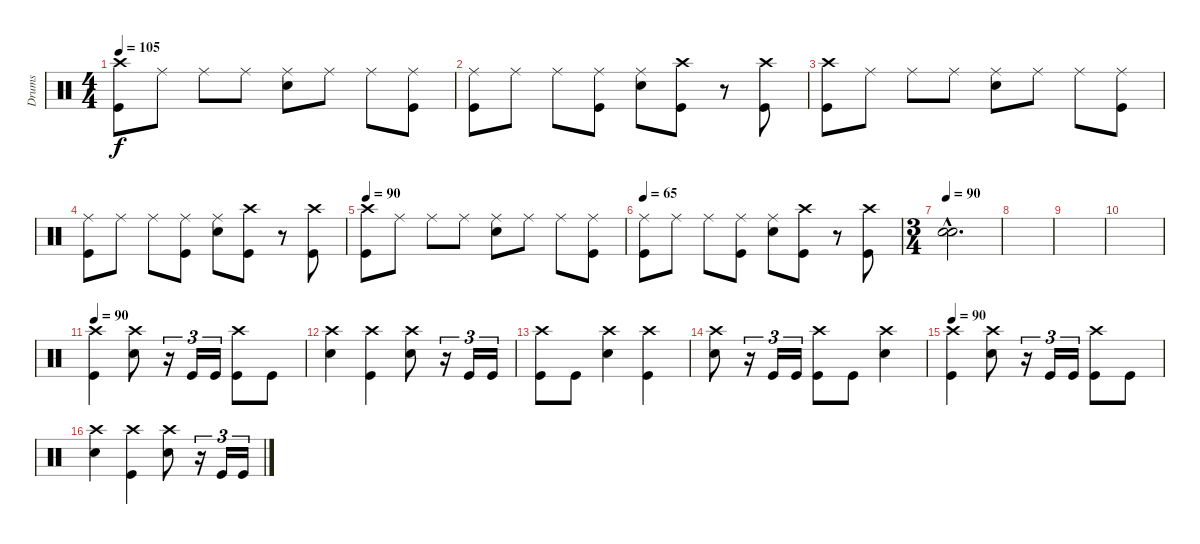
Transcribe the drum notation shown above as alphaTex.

\track ("Drums" "Drums") {instrument percussion}
\staff {score}
\articulation defaults
\ts (4 4)
\tempo 105
\clef neutral
\ks c
("Kick (hit)" "Crash high (hit)").8{dy f} "Ride (middle)".8 "Ride (middle)".8 "Ride (middle)".8 ("Snare (hit) 2" "Ride (middle)").8 "Ride (middle)".8 "Ride (middle)".8 ("Kick (hit)" "Ride (middle)").8 |
("Kick (hit)" "Ride (middle)").8 "Ride (middle)".8 "Ride (middle)".8 ("Kick (hit)" "Ride (middle)").8 ("Snare (hit) 2" "Ride (middle)").8 ("Kick (hit)" "Crash high (hit)").8 r.8 ("Kick (hit)" "Crash high (hit)").8 |
("Kick (hit)" "Crash high (hit)").8 "Ride (middle)".8 "Ride (middle)".8 "Ride (middle)".8 ("Snare (hit) 2" "Ride (middle)").8 "Ride (middle)".8 "Ride (middle)".8 ("Kick (hit)" "Ride (middle)").8 |
("Kick (hit)" "Ride (middle)").8 "Ride (middle)".8 "Ride (middle)".8 ("Kick (hit)" "Ride (middle)").8 ("Snare (hit) 2" "Ride (middle)").8 ("Kick (hit)" "Crash high (hit)").8 r.8 ("Kick (hit)" "Crash high (hit)").8 |
\tempo 90
("Kick (hit)" "Crash high (hit)").8 "Ride (middle)".8 "Ride (middle)".8 "Ride (middle)".8 ("Snare (hit) 2" "Ride (middle)").8 "Ride (middle)".8 "Ride (middle)".8 ("Kick (hit)" "Ride (middle)").8 |
\tempo 65
("Kick (hit)" "Ride (middle)").8 "Ride (middle)".8 "Ride (middle)".8 ("Kick (hit)" "Ride (middle)").8 ("Snare (hit) 2" "Ride (middle)").8 ("Kick (hit)" "Crash high (hit)").8 r.8 ("Kick (hit)" "Crash high (hit)").8 |
\ts (3 4)
\tempo 90
("Snare (hit) 2"{hac} "Snare (hit) 2"{hac}).2{d} |
|
|
|
\tempo 90
("Kick (hit)" "Crash high (hit)").4 ("Snare (hit) 2" "Crash high (hit)").8 r.16{tu (3 2)} "Kick (hit)".16{tu (3 2)} "Kick (hit)".16{tu (3 2)} ("Kick (hit)" "Crash high (hit)").8 "Kick (hit)".8 |
("Snare (hit) 2" "Crash high (hit)").4 ("Kick (hit)" "Crash high (hit)").4 ("Snare (hit) 2" "Crash high (hit)").8 r.16{tu (3 2)} "Kick (hit)".16{tu (3 2)} "Kick (hit)".16{tu (3 2)} |
("Kick (hit)" "Crash high (hit)").8 "Kick (hit)".8 ("Snare (hit) 2" "Crash high (hit)").4 ("Kick (hit)" "Crash high (hit)").4 |
("Snare (hit) 2" "Crash high (hit)").8 r.16{tu (3 2)} "Kick (hit)".16{tu (3 2)} "Kick (hit)".16{tu (3 2)} ("Kick (hit)" "Crash high (hit)").8 "Kick (hit)".8 ("Snare (hit) 2" "Crash high (hit)").4 |
\tempo 90
("Kick (hit)" "Crash high (hit)").4 ("Snare (hit) 2" "Crash high (hit)").8 r.16{tu (3 2)} "Kick (hit)".16{tu (3 2)} "Kick (hit)".16{tu (3 2)} ("Kick (hit)" "Crash high (hit)").8 "Kick (hit)".8 |
("Snare (hit) 2" "Crash high (hit)").4 ("Kick (hit)" "Crash high (hit)").4 ("Snare (hit) 2" "Crash high (hit)").8 r.16{tu (3 2)} "Kick (hit)".16{tu (3 2)} "Kick (hit)".16{tu (3 2)}
